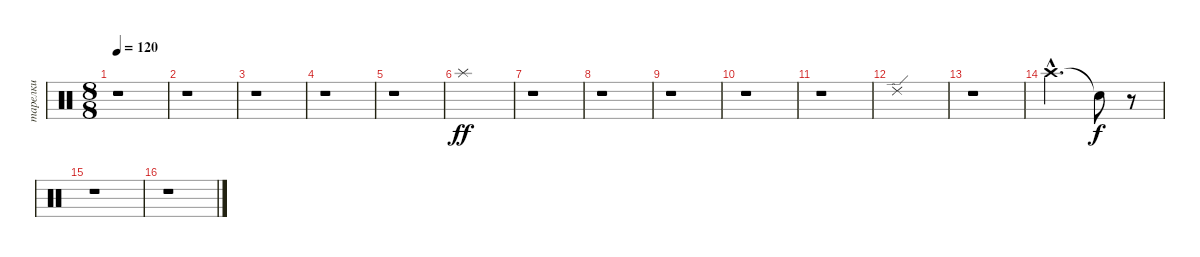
\track ("тарелки" "тарелки") {instrument percussion}
\staff {score}
\articulation defaults
\ts (8 8)
\tempo 120
\clef neutral
\ks c
r.1{dy f} |
r.1 |
r.1 |
r.1 |
r.1 |
"Splash (hit)".1{dy ff} |
r.1 |
r.1 |
r.1 |
r.1 |
r.1 |
"Ride (edge) 2".1 |
r.1 |
"Crash high (hit)"{hac}.2{d} "Snare (hit)"{t}.8{dy f} r.8 |
r.1 |
r.1
